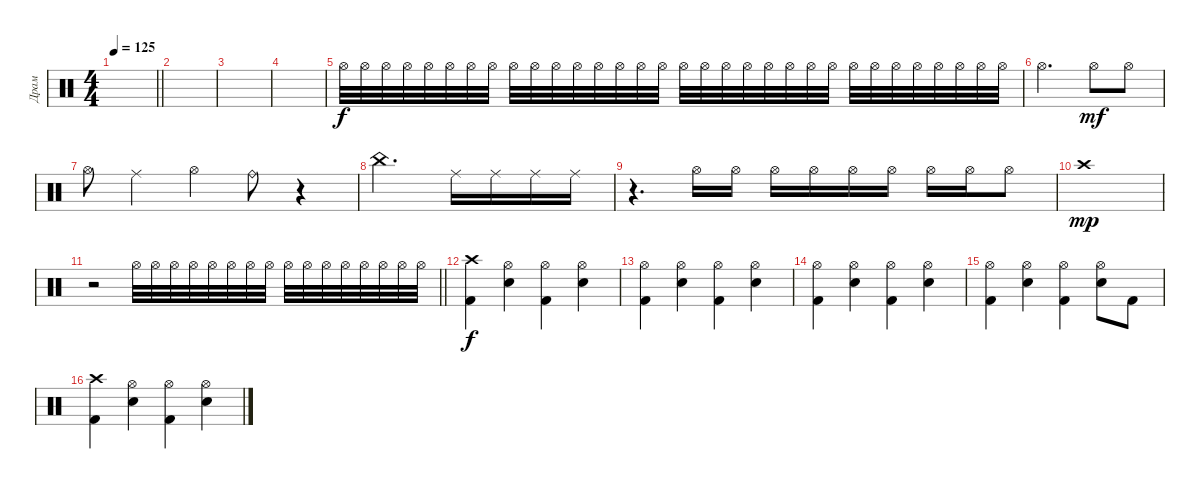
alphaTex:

\track ("Драм" "Драм") {instrument percussion}
\staff {score}
\articulation defaults
\ts (4 4)
\tempo 125
\clef neutral
\barLineRight lightlight
\ks c
|
|
|
|
"Hi-Hat (open)".32{volume 2} "Hi-Hat (open)".32{volume 8} "Hi-Hat (open)".32 "Hi-Hat (open)".32 "Hi-Hat (open)".32 "Hi-Hat (open)".32 "Hi-Hat (open)".32 "Hi-Hat (open)".32 "Hi-Hat (open)".32 "Hi-Hat (open)".32 "Hi-Hat (open)".32 "Hi-Hat (open)".32 "Hi-Hat (open)".32 "Hi-Hat (open)".32 "Hi-Hat (open)".32 "Hi-Hat (open)".32 "Hi-Hat (open)".32 "Hi-Hat (open)".32 "Hi-Hat (open)".32 "Hi-Hat (open)".32 "Hi-Hat (open)".32 "Hi-Hat (open)".32 "Hi-Hat (open)".32 "Hi-Hat (open)".32 "Hi-Hat (open)".32 "Hi-Hat (open)".32 "Hi-Hat (open)".32 "Hi-Hat (open)".32 "Hi-Hat (open)".32 "Hi-Hat (open)".32 "Hi-Hat (open)".32 "Hi-Hat (open)".32 |
"Hi-Hat (open)".2{d} "Hi-Hat (open)".8{dy mf volume 8} "Hi-Hat (open)".8 |
"Hi-Hat (open)".8 "Ride (middle)".4 "Hi-Hat (open)".4 "Ride (bell)".8 r.4 |
"China (hit)".2{d} "Ride (middle)".16 "Ride (middle)".16 "Ride (middle)".16 "Ride (middle)".16 |
r.4{d} "Hi-Hat (open)".16 "Hi-Hat (open)".16 "Hi-Hat (open)".16 "Hi-Hat (open)".16 "Hi-Hat (open)".16 "Hi-Hat (open)".16 "Hi-Hat (open)".16 "Hi-Hat (open)".16 "Hi-Hat (open)".8 |
"Crash high (hit)".1{dy mp} |
\barLineRight lightlight
r.2 "Hi-Hat (open)".32{volume 3} "Hi-Hat (open)".32{volume 13} "Hi-Hat (open)".32 "Hi-Hat (open)".32 "Hi-Hat (open)".32 "Hi-Hat (open)".32 "Hi-Hat (open)".32 "Hi-Hat (open)".32 "Hi-Hat (open)".32 "Hi-Hat (open)".32 "Hi-Hat (open)".32 "Hi-Hat (open)".32 "Hi-Hat (open)".32 "Hi-Hat (open)".32 "Hi-Hat (open)".32 "Hi-Hat (open)".32 |
("Crash high (hit)" "Kick (hit) 2").4{dy f} ("Hi-Hat (open)" "Snare (hit) 2").4 ("Hi-Hat (open)" "Kick (hit) 2").4 ("Hi-Hat (open)" "Snare (hit) 2").4 |
("Hi-Hat (open)" "Kick (hit) 2").4 ("Hi-Hat (open)" "Snare (hit) 2").4 ("Hi-Hat (open)" "Kick (hit) 2").4 ("Hi-Hat (open)" "Snare (hit) 2").4 |
("Hi-Hat (open)" "Kick (hit) 2").4 ("Hi-Hat (open)" "Snare (hit) 2").4 ("Hi-Hat (open)" "Kick (hit) 2").4 ("Hi-Hat (open)" "Snare (hit) 2").4 |
("Hi-Hat (open)" "Kick (hit) 2").4 ("Hi-Hat (open)" "Snare (hit) 2").4 ("Hi-Hat (open)" "Kick (hit) 2").4 ("Hi-Hat (open)" "Snare (hit) 2").8 "Kick (hit) 2".8 |
("Crash high (hit)" "Kick (hit) 2").4 ("Hi-Hat (open)" "Snare (hit) 2").4 ("Hi-Hat (open)" "Kick (hit) 2").4 ("Hi-Hat (open)" "Snare (hit) 2").4
